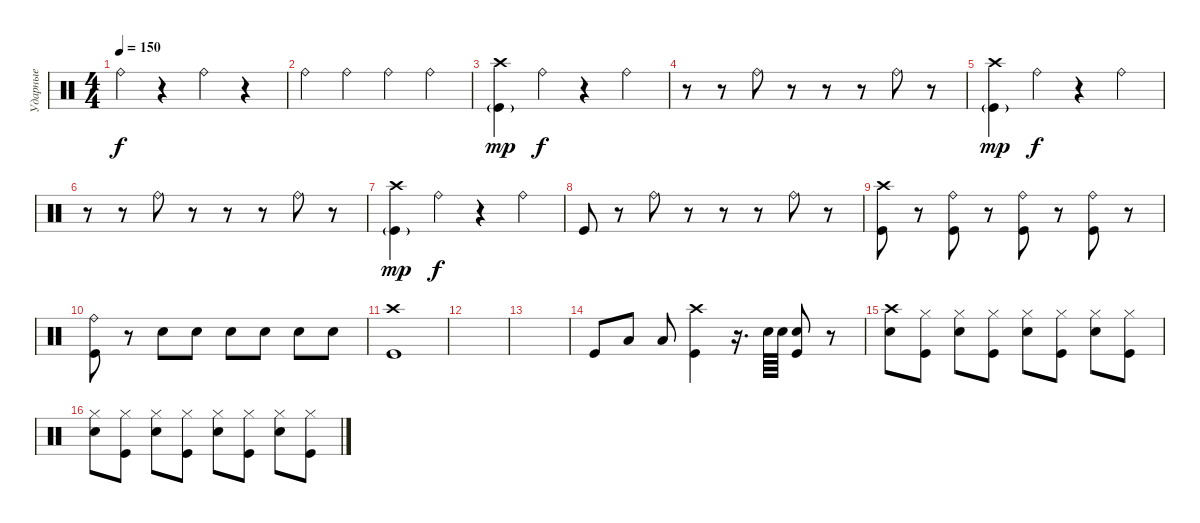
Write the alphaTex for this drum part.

\track ("Ударные" "Ударные") {instrument percussion}
\staff {score}
\articulation defaults
\ts (4 4)
\tempo 150
\clef neutral
\ks c "Ride (bell)".4{dy f}
r.4 "Ride (bell)".4 r.4 |
"Ride (bell)".4 "Ride (bell)".4 "Ride (bell)".4 "Ride (bell)".4 |
("Crash high (hit)" "Kick (hit)"{g}).4{dy mp} "Ride (bell)".4{dy f} r.4 "Ride (bell)".4 |
r.8 r.8 "Ride (bell)".8 r.8 r.8 r.8 "Ride (bell)".8 r.8 |
("Crash high (hit)" "Kick (hit)"{g}).4{dy mp} "Ride (bell)".4{dy f} r.4 "Ride (bell)".4 |
r.8 r.8 "Ride (bell)".8 r.8 r.8 r.8 "Ride (bell)".8 r.8 |
("Crash high (hit)" "Kick (hit)"{g}).4{dy mp} "Ride (bell)".4{dy f} r.4 "Ride (bell)".4 |
"Kick (hit)".8 r.8 "Ride (bell)".8 r.8 r.8 r.8 "Ride (bell)".8 r.8 |
("Crash high (hit)" "Kick (hit)").8 r.8 ("Ride (bell)" "Kick (hit)").8 r.8 ("Ride (bell)" "Kick (hit)").8 r.8 ("Ride (bell)" "Kick (hit)").8 r.8 |
("Ride (bell)" "Kick (hit)").8 r.8 "Electric Snare (hit)".8 "Electric Snare (hit)".8 "Electric Snare (hit)".8 "Electric Snare (hit)".8 "Electric Snare (hit)".8 "Electric Snare (hit)".8 |
("Crash high (hit)" "Kick (hit)").1 |
|
|
"Kick (hit)".8 "Low Tom (hit)".8 "Low Tom (hit)".8 ("Crash high (hit)" "Kick (hit)").4 r.16{d} "Electric Snare (hit)".64 "Electric Snare (hit)".64 ("Electric Snare (hit)" "Kick (hit)").8 r.8 |
("Crash high (hit)" "Electric Snare (hit)").8 ("Hi-Hat (closed)" "Kick (hit)").8 ("Hi-Hat (closed)" "Electric Snare (hit)").8 ("Hi-Hat (closed)" "Kick (hit)").8 ("Hi-Hat (closed)" "Electric Snare (hit)").8 ("Hi-Hat (closed)" "Kick (hit)").8 ("Hi-Hat (closed)" "Electric Snare (hit)").8 ("Hi-Hat (closed)" "Kick (hit)").8 |
("Hi-Hat (closed)" "Electric Snare (hit)").8 ("Hi-Hat (closed)" "Kick (hit)").8 ("Hi-Hat (closed)" "Electric Snare (hit)").8 ("Hi-Hat (closed)" "Kick (hit)").8 ("Hi-Hat (closed)" "Electric Snare (hit)").8 ("Hi-Hat (closed)" "Kick (hit)").8 ("Hi-Hat (closed)" "Electric Snare (hit)").8 ("Hi-Hat (closed)" "Kick (hit)").8
